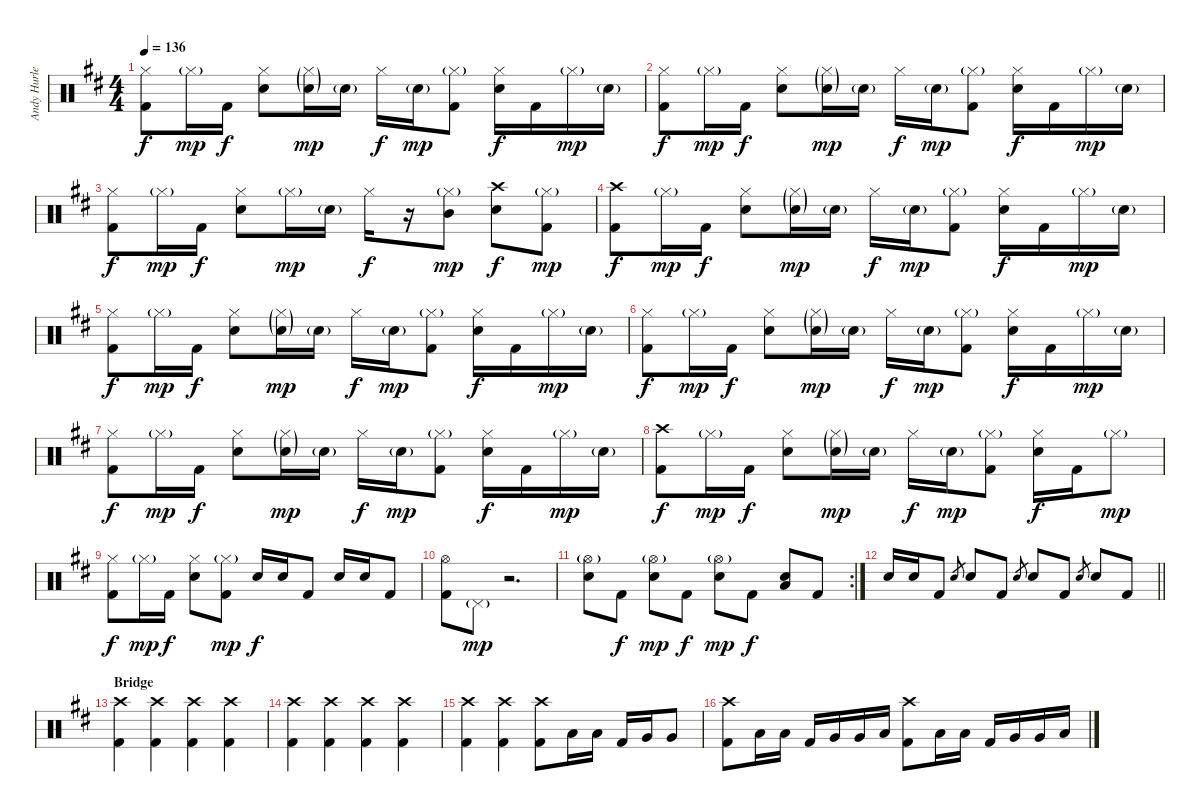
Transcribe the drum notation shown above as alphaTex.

\track ("Andy Hurley" "Andy Hurle") {instrument percussion}
\staff {score}
\articulation defaults
\ts (4 4)
\tempo 136
\clef neutral
\ks d
("Hi-Hat (closed)" "Kick (hit) 2").8{dy f} "Hi-Hat (closed)"{g}.16{dy mp} "Kick (hit) 2".16{dy f} ("Hi-Hat (closed)" "Snare (hit) 2").8 ("Hi-Hat (closed)"{g} "Snare (hit) 2"{g}).16{dy mp} "Snare (hit) 2"{g}.16 "Hi-Hat (closed)".16{dy f} "Snare (hit) 2"{g}.16{dy mp} ("Hi-Hat (closed)"{g} "Kick (hit) 2").8 ("Hi-Hat (closed)" "Snare (hit) 2").16{dy f} "Kick (hit) 2".16 "Hi-Hat (closed)"{g}.16{dy mp} "Snare (hit) 2"{g}.16 |
("Hi-Hat (closed)" "Kick (hit) 2").8{dy f} "Hi-Hat (closed)"{g}.16{dy mp} "Kick (hit) 2".16{dy f} ("Hi-Hat (closed)" "Snare (hit) 2").8 ("Hi-Hat (closed)"{g} "Snare (hit) 2"{g}).16{dy mp} "Snare (hit) 2"{g}.16 "Hi-Hat (closed)".16{dy f} "Snare (hit) 2"{g}.16{dy mp} ("Hi-Hat (closed)"{g} "Kick (hit) 2").8 ("Hi-Hat (closed)" "Snare (hit) 2").16{dy f} "Kick (hit) 2".16 "Hi-Hat (closed)"{g}.16{dy mp} "Snare (hit) 2"{g}.16 |
("Hi-Hat (closed)" "Kick (hit) 2").8{dy f} "Hi-Hat (closed)"{g}.16{dy mp} "Kick (hit) 2".16{dy f} ("Hi-Hat (closed)" "Snare (hit) 2").8 "Hi-Hat (closed)"{g}.16{dy mp} "Snare (hit) 2"{g}.16 "Hi-Hat (closed)".16{dy f} r.16 ("Hi-Hat (closed)"{g} "Mid Tom (hit)").8{dy mp} ("Crash high (hit)" "Snare (hit) 2").8{dy f} ("Hi-Hat (closed)"{g} "Kick (hit) 2").8{dy mp} |
("Crash high (hit)" "Kick (hit) 2").8{dy f} "Hi-Hat (closed)"{g}.16{dy mp} "Kick (hit) 2".16{dy f} ("Hi-Hat (closed)" "Snare (hit) 2").8 ("Hi-Hat (closed)"{g} "Snare (hit) 2"{g}).16{dy mp} "Snare (hit) 2"{g}.16 "Hi-Hat (closed)".16{dy f} "Snare (hit) 2"{g}.16{dy mp} ("Hi-Hat (closed)"{g} "Kick (hit) 2").8 ("Hi-Hat (closed)" "Snare (hit) 2").16{dy f} "Kick (hit) 2".16 "Hi-Hat (closed)"{g}.16{dy mp} "Snare (hit) 2"{g}.16 |
("Hi-Hat (closed)" "Kick (hit) 2").8{dy f} "Hi-Hat (closed)"{g}.16{dy mp} "Kick (hit) 2".16{dy f} ("Hi-Hat (closed)" "Snare (hit) 2").8 ("Hi-Hat (closed)"{g} "Snare (hit) 2"{g}).16{dy mp} "Snare (hit) 2"{g}.16 "Hi-Hat (closed)".16{dy f} "Snare (hit) 2"{g}.16{dy mp} ("Hi-Hat (closed)"{g} "Kick (hit) 2").8 ("Hi-Hat (closed)" "Snare (hit) 2").16{dy f} "Kick (hit) 2".16 "Hi-Hat (closed)"{g}.16{dy mp} "Snare (hit) 2"{g}.16 |
("Hi-Hat (closed)" "Kick (hit) 2").8{dy f} "Hi-Hat (closed)"{g}.16{dy mp} "Kick (hit) 2".16{dy f} ("Hi-Hat (closed)" "Snare (hit) 2").8 ("Hi-Hat (closed)"{g} "Snare (hit) 2"{g}).16{dy mp} "Snare (hit) 2"{g}.16 "Hi-Hat (closed)".16{dy f} "Snare (hit) 2"{g}.16{dy mp} ("Hi-Hat (closed)"{g} "Kick (hit) 2").8 ("Hi-Hat (closed)" "Snare (hit) 2").16{dy f} "Kick (hit) 2".16 "Hi-Hat (closed)"{g}.16{dy mp} "Snare (hit) 2"{g}.16 |
("Hi-Hat (closed)" "Kick (hit) 2").8{dy f} "Hi-Hat (closed)"{g}.16{dy mp} "Kick (hit) 2".16{dy f} ("Hi-Hat (closed)" "Snare (hit) 2").8 ("Hi-Hat (closed)"{g} "Snare (hit) 2"{g}).16{dy mp} "Snare (hit) 2"{g}.16 "Hi-Hat (closed)".16{dy f} "Snare (hit) 2"{g}.16{dy mp} ("Hi-Hat (closed)"{g} "Kick (hit) 2").8 ("Hi-Hat (closed)" "Snare (hit) 2").16{dy f} "Kick (hit) 2".16 "Hi-Hat (closed)"{g}.16{dy mp} "Snare (hit) 2"{g}.16 |
("Crash high (hit)" "Kick (hit) 2").8{dy f} "Hi-Hat (closed)"{g}.16{dy mp} "Kick (hit) 2".16{dy f} ("Hi-Hat (closed)" "Snare (hit) 2").8 ("Hi-Hat (closed)"{g} "Snare (hit) 2"{g}).16{dy mp} "Snare (hit) 2"{g}.16 "Hi-Hat (closed)".16{dy f} "Snare (hit) 2"{g}.16{dy mp} ("Hi-Hat (closed)"{g} "Kick (hit) 2").8 ("Hi-Hat (closed)" "Snare (hit) 2").16{dy f} "Kick (hit) 2".16 "Hi-Hat (closed)"{g}.8{dy mp} |
("Hi-Hat (closed)" "Kick (hit) 2").8{dy f} "Hi-Hat (closed)"{g}.16{dy mp} "Kick (hit) 2".16{dy f} ("Hi-Hat (closed)" "Snare (hit) 2").8 ("Hi-Hat (closed)"{g} "Kick (hit) 2").8{dy mp} "Snare (hit) 2".16{dy f} "Snare (hit) 2".16 "Kick (hit) 2".8 "Snare (hit) 2".16 "Snare (hit) 2".16 "Kick (hit) 2".8 |
("Hi-Hat (open)" "Kick (hit) 2").8 "Pedal Hi-Hat (hit)"{g}.8{dy mp} r.2{d} |
\rc 2
("Hi-Hat (open)"{g} "Snare (hit) 2").8{volume 16} "Kick (hit) 2".8{dy f} ("Hi-Hat (open)"{g} "Snare (hit) 2").8{dy mp} "Kick (hit) 2".8{dy f} ("Hi-Hat (open)"{g} "Snare (hit) 2").8{dy mp} "Kick (hit) 2".8{dy f} ("Snare (hit) 2" "Low Floor Tom (hit)").8 "Kick (hit) 2".8 |
\barLineRight lightlight "Snare (hit) 2".16 "Snare (hit) 2".16 "Kick (hit) 2".8 "Snare (hit) 2".8{gr} "Snare (hit) 2".8 "Kick (hit) 2".8 "Snare (hit) 2".8{gr} "Snare (hit) 2".8 "Kick (hit) 2".8 "Snare (hit) 2".8{gr} "Snare (hit) 2".8 "Kick (hit) 2".8
|
\section ("" "Bridge")
("Crash high (hit)" "Kick (hit) 2").4 ("Crash high (hit)" "Kick (hit) 2").4 ("Crash high (hit)" "Kick (hit) 2").4 ("Crash high (hit)" "Kick (hit) 2").4 |
("Crash high (hit)" "Kick (hit) 2").4 ("Crash high (hit)" "Kick (hit) 2").4 ("Crash high (hit)" "Kick (hit) 2").4 ("Crash high (hit)" "Kick (hit) 2").4 |
("Crash high (hit)" "Kick (hit) 2").4 ("Crash high (hit)" "Kick (hit) 2").4 ("Crash high (hit)" "Kick (hit) 2").8 "Low Tom (hit)".16 "Low Tom (hit)".16 "Kick (hit) 2".16 "Very Low Tom (hit)".16 "Very Low Tom (hit)".8 |
("Crash high (hit)" "Kick (hit) 2").8 "Low Tom (hit)".16 "Low Tom (hit)".16 "Kick (hit) 2".16 "Very Low Tom (hit)".16 "Very Low Tom (hit)".16 "Low Floor Tom (hit)".16 ("Crash high (hit)" "Kick (hit) 2").8 "Low Tom (hit)".16 "Low Tom (hit)".16 "Kick (hit) 2".16 "Very Low Tom (hit)".16 "Very Low Tom (hit)".16 "Low Floor Tom (hit)".16
